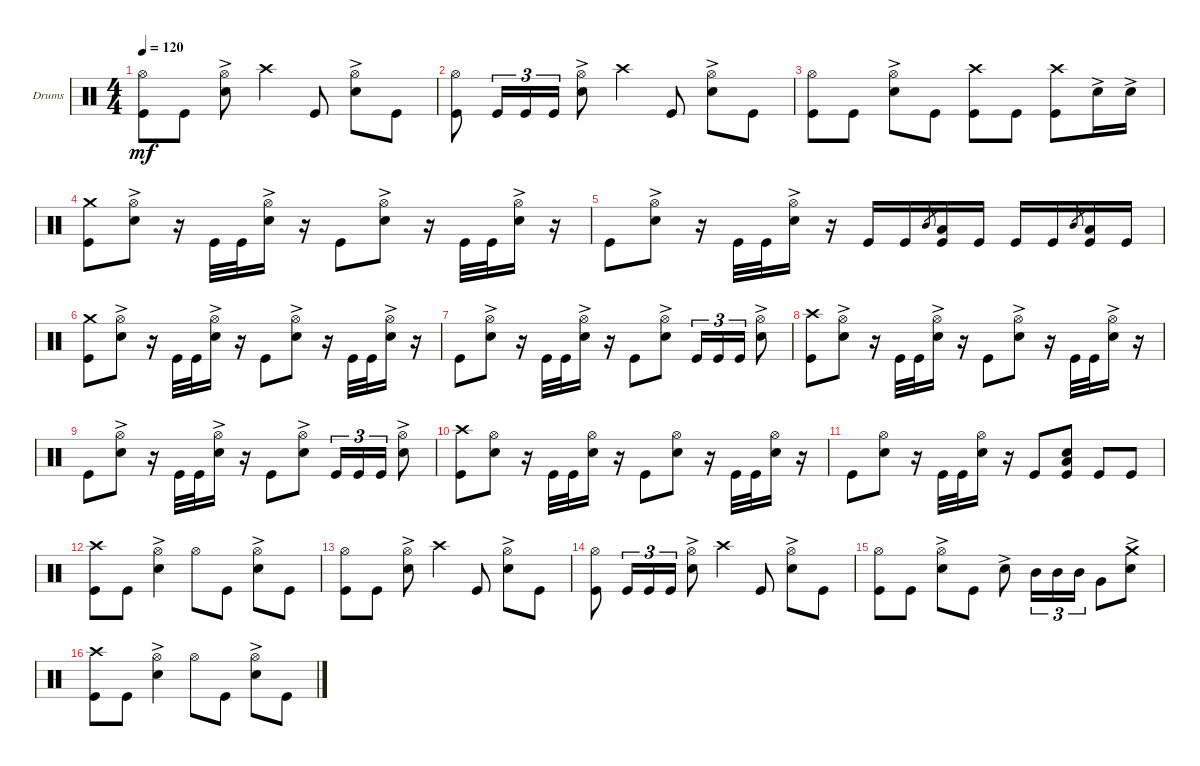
\defaultSystemsLayout 4
\bracketExtendMode groupsimilarinstruments
\firstSystemTrackNameOrientation horizontal
\otherSystemsTrackNameOrientation horizontal
\track ("Drumkit" "Drums") {instrument percussion}
\staff {score}
\articulation defaults
\ts (4 4)
\tempo 120
\clef neutral
\scale
0.288462
\ks c
("Kick (hit)" "Hi-Hat (open)").8{dy mf} "Kick (hit)".8 ("Hi-Hat (open)" "Snare (hit) 2"{ac}).8 "Crash high (hit)".4 "Kick (hit)".8 ("Snare (hit) 2"{ac} "Hi-Hat (open)").8 "Kick (hit)".8 |
\scale
0.423077 ("Kick (hit)" "Hi-Hat (open)").8 "Kick (hit)".16{tu (3 2)} "Kick (hit)".16{tu (3 2)} "Kick (hit)".16{tu (3 2)} ("Hi-Hat (open)" "Snare (hit) 2"{ac}).8 "Crash high (hit)".4 "Kick (hit)".8 ("Snare (hit) 2"{ac} "Hi-Hat (open)").8 "Kick (hit)".8 |
\scale
0.32636 ("Kick (hit)" "Hi-Hat (open)").8 "Kick (hit)".8 ("Hi-Hat (open)" "Snare (hit) 2"{ac}).8 "Kick (hit)".8 ("Kick (hit)" "Crash high (hit)").8 "Kick (hit)".8 ("Kick (hit)" "Crash high (hit)").8 "Snare (hit) 2"{ac}.16 "Snare (hit) 2"{ac}.16 |
\scale
0.343096 ("Kick (hit)" "Crash medium (hit)").8 ("Snare (hit) 2"{ac} "Hi-Hat (open)").8 r.16 "Kick (hit)".32 "Kick (hit)".32 ("Snare (hit) 2"{ac} "Hi-Hat (open)").16 r.16 "Kick (hit)".8 ("Snare (hit) 2"{ac} "Hi-Hat (open)").8 r.16 "Kick (hit)".32 "Kick (hit)".32 ("Snare (hit) 2"{ac} "Hi-Hat (open)").16 r.16 |
\scale
0.330544 "Kick (hit)".8 ("Snare (hit) 2"{ac} "Hi-Hat (open)").8 r.16 "Kick (hit)".32 "Kick (hit)".32 ("Snare (hit) 2"{ac} "Hi-Hat (open)").16 r.16 "Kick (hit)".16 "Kick (hit)".16 "Mid Tom (hit)".8{gr} ("Kick (hit)" "Low Tom (hit)").16 "Kick (hit)".16 "Kick (hit)".16 "Kick (hit)".16 "Mid Tom (hit)".8{gr} ("Kick (hit)" "Low Tom (hit)").16 "Kick (hit)".16 |
\scale
0.337449 ("Kick (hit)" "Crash medium (hit)").8 ("Snare (hit) 2"{ac} "Hi-Hat (open)").8 r.16 "Kick (hit)".32 "Kick (hit)".32 ("Snare (hit) 2"{ac} "Hi-Hat (open)").16 r.16 "Kick (hit)".8 ("Snare (hit) 2"{ac} "Hi-Hat (open)").8 r.16 "Kick (hit)".32 "Kick (hit)".32 ("Snare (hit) 2"{ac} "Hi-Hat (open)").16 r.16 |
\scale
0.325103 "Kick (hit)".8 ("Snare (hit) 2"{ac} "Hi-Hat (open)").8 r.16 "Kick (hit)".32 "Kick (hit)".32 ("Snare (hit) 2"{ac} "Hi-Hat (open)").16 r.16 "Kick (hit)".8 ("Snare (hit) 2"{ac} "Hi-Hat (open)").8 "Kick (hit)".16{tu (3 2)} "Kick (hit)".16{tu (3 2)} "Kick (hit)".16{tu (3 2)} ("Snare (hit) 2"{ac} "Hi-Hat (open)").8 |
\scale
0.337449 ("Kick (hit)" "Crash high (hit)").8 ("Snare (hit) 2"{ac} "Hi-Hat (open)").8 r.16 "Kick (hit)".32 "Kick (hit)".32 ("Snare (hit) 2"{ac} "Hi-Hat (open)").16 r.16 "Kick (hit)".8 ("Snare (hit) 2"{ac} "Hi-Hat (open)").8 r.16 "Kick (hit)".32 "Kick (hit)".32 ("Snare (hit) 2"{ac} "Hi-Hat (open)").16 r.16 |
\scale
0.321138 "Kick (hit)".8 ("Snare (hit) 2"{ac} "Hi-Hat (open)").8 r.16 "Kick (hit)".32 "Kick (hit)".32 ("Snare (hit) 2"{ac} "Hi-Hat (open)").16 r.16 "Kick (hit)".8 ("Snare (hit) 2"{ac} "Hi-Hat (open)").8 "Kick (hit)".16{tu (3 2)} "Kick (hit)".16{tu (3 2)} "Kick (hit)".16{tu (3 2)} ("Snare (hit) 2"{ac} "Hi-Hat (open)").8 |
\scale
0.333333 ("Kick (hit)" "Crash high (hit)").8 ("Snare (hit) 2" "Hi-Hat (open)").8 r.16 "Kick (hit)".32 "Kick (hit)".32 ("Snare (hit) 2" "Hi-Hat (open)").16 r.16 "Kick (hit)".8 ("Snare (hit) 2" "Hi-Hat (open)").8 r.16 "Kick (hit)".32 "Kick (hit)".32 ("Snare (hit) 2" "Hi-Hat (open)").16 r.16 |
\scale
0.345528 "Kick (hit)".8 ("Snare (hit) 2" "Hi-Hat (open)").8 r.16 "Kick (hit)".32 "Kick (hit)".32 ("Snare (hit) 2" "Hi-Hat (open)").16 r.16 "Kick (hit)".8 ("Kick (hit)" "Low Tom (hit)" "Snare (hit) 2").8 "Kick (hit)".8 "Kick (hit)".8 |
\scale
0.333333 ("Kick (hit)" "Crash high (hit)").8 "Kick (hit)".8 ("Hi-Hat (open)" "Snare (hit) 2"{ac}).4 "Hi-Hat (open)".8 "Kick (hit)".8 ("Snare (hit) 2"{ac} "Hi-Hat (open)").8 "Kick (hit)".8 |
\scale
0.333333 ("Kick (hit)" "Hi-Hat (open)").8 "Kick (hit)".8 ("Hi-Hat (open)" "Snare (hit) 2"{ac}).8 "Crash high (hit)".4 "Kick (hit)".8 ("Snare (hit) 2"{ac} "Hi-Hat (open)").8 "Kick (hit)".8 |
\scale
0.333333 ("Kick (hit)" "Hi-Hat (open)").8 "Kick (hit)".16{tu (3 2)} "Kick (hit)".16{tu (3 2)} "Kick (hit)".16{tu (3 2)} ("Hi-Hat (open)" "Snare (hit) 2"{ac}).8 "Crash high (hit)".4 "Kick (hit)".8 ("Snare (hit) 2"{ac} "Hi-Hat (open)").8 "Kick (hit)".8 |
\scale
0.333333 ("Kick (hit)" "Hi-Hat (open)").8 "Kick (hit)".8 ("Hi-Hat (open)" "Snare (hit) 2"{ac}).8 "Kick (hit)".8 "Snare (hit) 2"{ac}.8 "Mid Tom (hit)".16{tu (3 2)} "Mid Tom (hit)".16{tu (3 2)} "Mid Tom (hit)".16{tu (3 2)} "Very Low Tom (hit)".8 ("Snare (hit) 2"{ac} "Crash medium (hit)").8 |
\scale
0.333333 ("Kick (hit)" "Crash high (hit)").8 "Kick (hit)".8 ("Hi-Hat (open)" "Snare (hit) 2"{ac}).4 "Hi-Hat (open)".8 "Kick (hit)".8 ("Snare (hit) 2"{ac} "Hi-Hat (open)").8 "Kick (hit)".8
